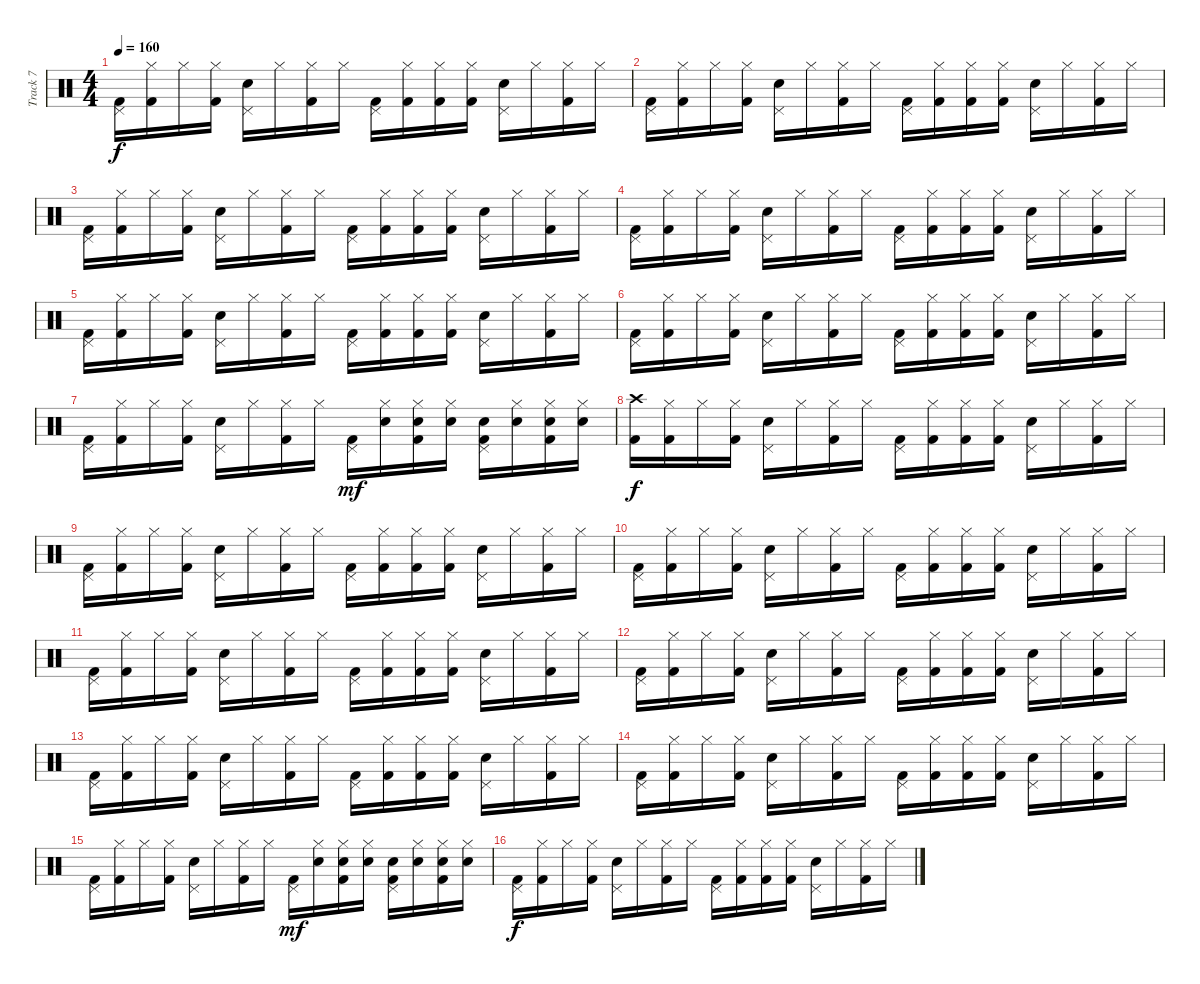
\track ("Track 7" "Track 7") {instrument percussion}
\staff {score}
\articulation defaults
\ts (4 4)
\tempo 160
\clef neutral
\ks c
("Pedal Hi-Hat (hit)" "Kick (hit) 2").16{dy f} ("Hi-Hat (closed)" "Kick (hit) 2").16 "Hi-Hat (closed)".16 ("Hi-Hat (closed)" "Kick (hit) 2").16 ("Pedal Hi-Hat (hit)" "Snare (hit) 2").16 "Hi-Hat (closed)".16 ("Hi-Hat (closed)" "Kick (hit) 2").16 "Hi-Hat (closed)".16 ("Pedal Hi-Hat (hit)" "Kick (hit) 2").16 ("Hi-Hat (closed)" "Kick (hit) 2").16 ("Hi-Hat (closed)" "Kick (hit) 2").16 ("Hi-Hat (closed)" "Kick (hit) 2").16 ("Pedal Hi-Hat (hit)" "Snare (hit) 2").16 "Hi-Hat (closed)".16 ("Hi-Hat (closed)" "Kick (hit) 2").16 "Hi-Hat (closed)".16 |
("Pedal Hi-Hat (hit)" "Kick (hit) 2").16 ("Hi-Hat (closed)" "Kick (hit) 2").16 "Hi-Hat (closed)".16 ("Hi-Hat (closed)" "Kick (hit) 2").16 ("Pedal Hi-Hat (hit)" "Snare (hit) 2").16 "Hi-Hat (closed)".16 ("Hi-Hat (closed)" "Kick (hit) 2").16 "Hi-Hat (closed)".16 ("Pedal Hi-Hat (hit)" "Kick (hit) 2").16 ("Hi-Hat (closed)" "Kick (hit) 2").16 ("Hi-Hat (closed)" "Kick (hit) 2").16 ("Hi-Hat (closed)" "Kick (hit) 2").16 ("Pedal Hi-Hat (hit)" "Snare (hit) 2").16 "Hi-Hat (closed)".16 ("Hi-Hat (closed)" "Kick (hit) 2").16 "Hi-Hat (closed)".16 |
("Pedal Hi-Hat (hit)" "Kick (hit) 2").16 ("Hi-Hat (closed)" "Kick (hit) 2").16 "Hi-Hat (closed)".16 ("Hi-Hat (closed)" "Kick (hit) 2").16 ("Pedal Hi-Hat (hit)" "Snare (hit) 2").16 "Hi-Hat (closed)".16 ("Hi-Hat (closed)" "Kick (hit) 2").16 "Hi-Hat (closed)".16 ("Pedal Hi-Hat (hit)" "Kick (hit) 2").16 ("Hi-Hat (closed)" "Kick (hit) 2").16 ("Hi-Hat (closed)" "Kick (hit) 2").16 ("Hi-Hat (closed)" "Kick (hit) 2").16 ("Pedal Hi-Hat (hit)" "Snare (hit) 2").16 "Hi-Hat (closed)".16 ("Hi-Hat (closed)" "Kick (hit) 2").16 "Hi-Hat (closed)".16 |
("Pedal Hi-Hat (hit)" "Kick (hit) 2").16 ("Hi-Hat (closed)" "Kick (hit) 2").16 "Hi-Hat (closed)".16 ("Hi-Hat (closed)" "Kick (hit) 2").16 ("Pedal Hi-Hat (hit)" "Snare (hit) 2").16 "Hi-Hat (closed)".16 ("Hi-Hat (closed)" "Kick (hit) 2").16 "Hi-Hat (closed)".16 ("Pedal Hi-Hat (hit)" "Kick (hit) 2").16 ("Hi-Hat (closed)" "Kick (hit) 2").16 ("Hi-Hat (closed)" "Kick (hit) 2").16 ("Hi-Hat (closed)" "Kick (hit) 2").16 ("Pedal Hi-Hat (hit)" "Snare (hit) 2").16 "Hi-Hat (closed)".16 ("Hi-Hat (closed)" "Kick (hit) 2").16 "Hi-Hat (closed)".16 |
("Pedal Hi-Hat (hit)" "Kick (hit) 2").16 ("Hi-Hat (closed)" "Kick (hit) 2").16 "Hi-Hat (closed)".16 ("Hi-Hat (closed)" "Kick (hit) 2").16 ("Pedal Hi-Hat (hit)" "Snare (hit) 2").16 "Hi-Hat (closed)".16 ("Hi-Hat (closed)" "Kick (hit) 2").16 "Hi-Hat (closed)".16 ("Pedal Hi-Hat (hit)" "Kick (hit) 2").16 ("Hi-Hat (closed)" "Kick (hit) 2").16 ("Hi-Hat (closed)" "Kick (hit) 2").16 ("Hi-Hat (closed)" "Kick (hit) 2").16 ("Pedal Hi-Hat (hit)" "Snare (hit) 2").16 "Hi-Hat (closed)".16 ("Hi-Hat (closed)" "Kick (hit) 2").16 "Hi-Hat (closed)".16 |
("Pedal Hi-Hat (hit)" "Kick (hit) 2").16 ("Hi-Hat (closed)" "Kick (hit) 2").16 "Hi-Hat (closed)".16 ("Hi-Hat (closed)" "Kick (hit) 2").16 ("Pedal Hi-Hat (hit)" "Snare (hit) 2").16 "Hi-Hat (closed)".16 ("Hi-Hat (closed)" "Kick (hit) 2").16 "Hi-Hat (closed)".16 ("Pedal Hi-Hat (hit)" "Kick (hit) 2").16 ("Hi-Hat (closed)" "Kick (hit) 2").16 ("Hi-Hat (closed)" "Kick (hit) 2").16 ("Hi-Hat (closed)" "Kick (hit) 2").16 ("Pedal Hi-Hat (hit)" "Snare (hit) 2").16 "Hi-Hat (closed)".16 ("Hi-Hat (closed)" "Kick (hit) 2").16 "Hi-Hat (closed)".16 |
("Pedal Hi-Hat (hit)" "Kick (hit) 2").16 ("Hi-Hat (closed)" "Kick (hit) 2").16 "Hi-Hat (closed)".16 ("Hi-Hat (closed)" "Kick (hit) 2").16 ("Pedal Hi-Hat (hit)" "Snare (hit) 2").16 "Hi-Hat (closed)".16 ("Hi-Hat (closed)" "Kick (hit) 2").16 "Hi-Hat (closed)".16 ("Pedal Hi-Hat (hit)" "Kick (hit) 2").16{dy mf} ("Hi-Hat (closed)" "Snare (hit) 2").16 ("Hi-Hat (closed)" "Snare (hit) 2" "Kick (hit) 2").16 ("Hi-Hat (closed)" "Snare (hit) 2").16 ("Pedal Hi-Hat (hit)" "Snare (hit) 2" "Kick (hit) 2").16 ("Hi-Hat (closed)" "Snare (hit) 2").16 ("Hi-Hat (closed)" "Snare (hit) 2" "Kick (hit) 2").16 ("Hi-Hat (closed)" "Snare (hit) 2").16 |
("Crash high (hit)" "Kick (hit) 2").16{dy f} ("Hi-Hat (closed)" "Kick (hit) 2").16 "Hi-Hat (closed)".16 ("Hi-Hat (closed)" "Kick (hit) 2").16 ("Pedal Hi-Hat (hit)" "Snare (hit) 2").16 "Hi-Hat (closed)".16 ("Hi-Hat (closed)" "Kick (hit) 2").16 "Hi-Hat (closed)".16 ("Pedal Hi-Hat (hit)" "Kick (hit) 2").16 ("Hi-Hat (closed)" "Kick (hit) 2").16 ("Hi-Hat (closed)" "Kick (hit) 2").16 ("Hi-Hat (closed)" "Kick (hit) 2").16 ("Pedal Hi-Hat (hit)" "Snare (hit) 2").16 "Hi-Hat (closed)".16 ("Hi-Hat (closed)" "Kick (hit) 2").16 "Hi-Hat (closed)".16 |
("Pedal Hi-Hat (hit)" "Kick (hit) 2").16 ("Hi-Hat (closed)" "Kick (hit) 2").16 "Hi-Hat (closed)".16 ("Hi-Hat (closed)" "Kick (hit) 2").16 ("Pedal Hi-Hat (hit)" "Snare (hit) 2").16 "Hi-Hat (closed)".16 ("Hi-Hat (closed)" "Kick (hit) 2").16 "Hi-Hat (closed)".16 ("Pedal Hi-Hat (hit)" "Kick (hit) 2").16 ("Hi-Hat (closed)" "Kick (hit) 2").16 ("Hi-Hat (closed)" "Kick (hit) 2").16 ("Hi-Hat (closed)" "Kick (hit) 2").16 ("Pedal Hi-Hat (hit)" "Snare (hit) 2").16 "Hi-Hat (closed)".16 ("Hi-Hat (closed)" "Kick (hit) 2").16 "Hi-Hat (closed)".16 |
("Pedal Hi-Hat (hit)" "Kick (hit) 2").16 ("Hi-Hat (closed)" "Kick (hit) 2").16 "Hi-Hat (closed)".16 ("Hi-Hat (closed)" "Kick (hit) 2").16 ("Pedal Hi-Hat (hit)" "Snare (hit) 2").16 "Hi-Hat (closed)".16 ("Hi-Hat (closed)" "Kick (hit) 2").16 "Hi-Hat (closed)".16 ("Pedal Hi-Hat (hit)" "Kick (hit) 2").16 ("Hi-Hat (closed)" "Kick (hit) 2").16 ("Hi-Hat (closed)" "Kick (hit) 2").16 ("Hi-Hat (closed)" "Kick (hit) 2").16 ("Pedal Hi-Hat (hit)" "Snare (hit) 2").16 "Hi-Hat (closed)".16 ("Hi-Hat (closed)" "Kick (hit) 2").16 "Hi-Hat (closed)".16 |
("Pedal Hi-Hat (hit)" "Kick (hit) 2").16 ("Hi-Hat (closed)" "Kick (hit) 2").16 "Hi-Hat (closed)".16 ("Hi-Hat (closed)" "Kick (hit) 2").16 ("Pedal Hi-Hat (hit)" "Snare (hit) 2").16 "Hi-Hat (closed)".16 ("Hi-Hat (closed)" "Kick (hit) 2").16 "Hi-Hat (closed)".16 ("Pedal Hi-Hat (hit)" "Kick (hit) 2").16 ("Hi-Hat (closed)" "Kick (hit) 2").16 ("Hi-Hat (closed)" "Kick (hit) 2").16 ("Hi-Hat (closed)" "Kick (hit) 2").16 ("Pedal Hi-Hat (hit)" "Snare (hit) 2").16 "Hi-Hat (closed)".16 ("Hi-Hat (closed)" "Kick (hit) 2").16 "Hi-Hat (closed)".16 |
("Pedal Hi-Hat (hit)" "Kick (hit) 2").16 ("Hi-Hat (closed)" "Kick (hit) 2").16 "Hi-Hat (closed)".16 ("Hi-Hat (closed)" "Kick (hit) 2").16 ("Pedal Hi-Hat (hit)" "Snare (hit) 2").16 "Hi-Hat (closed)".16 ("Hi-Hat (closed)" "Kick (hit) 2").16 "Hi-Hat (closed)".16 ("Pedal Hi-Hat (hit)" "Kick (hit) 2").16 ("Hi-Hat (closed)" "Kick (hit) 2").16 ("Hi-Hat (closed)" "Kick (hit) 2").16 ("Hi-Hat (closed)" "Kick (hit) 2").16 ("Pedal Hi-Hat (hit)" "Snare (hit) 2").16 "Hi-Hat (closed)".16 ("Hi-Hat (closed)" "Kick (hit) 2").16 "Hi-Hat (closed)".16 |
("Pedal Hi-Hat (hit)" "Kick (hit) 2").16 ("Hi-Hat (closed)" "Kick (hit) 2").16 "Hi-Hat (closed)".16 ("Hi-Hat (closed)" "Kick (hit) 2").16 ("Pedal Hi-Hat (hit)" "Snare (hit) 2").16 "Hi-Hat (closed)".16 ("Hi-Hat (closed)" "Kick (hit) 2").16 "Hi-Hat (closed)".16 ("Pedal Hi-Hat (hit)" "Kick (hit) 2").16 ("Hi-Hat (closed)" "Kick (hit) 2").16 ("Hi-Hat (closed)" "Kick (hit) 2").16 ("Hi-Hat (closed)" "Kick (hit) 2").16 ("Pedal Hi-Hat (hit)" "Snare (hit) 2").16 "Hi-Hat (closed)".16 ("Hi-Hat (closed)" "Kick (hit) 2").16 "Hi-Hat (closed)".16 |
("Pedal Hi-Hat (hit)" "Kick (hit) 2").16 ("Hi-Hat (closed)" "Kick (hit) 2").16 "Hi-Hat (closed)".16 ("Hi-Hat (closed)" "Kick (hit) 2").16 ("Pedal Hi-Hat (hit)" "Snare (hit) 2").16 "Hi-Hat (closed)".16 ("Hi-Hat (closed)" "Kick (hit) 2").16 "Hi-Hat (closed)".16 ("Pedal Hi-Hat (hit)" "Kick (hit) 2").16 ("Hi-Hat (closed)" "Kick (hit) 2").16 ("Hi-Hat (closed)" "Kick (hit) 2").16 ("Hi-Hat (closed)" "Kick (hit) 2").16 ("Pedal Hi-Hat (hit)" "Snare (hit) 2").16 "Hi-Hat (closed)".16 ("Hi-Hat (closed)" "Kick (hit) 2").16 "Hi-Hat (closed)".16 |
("Pedal Hi-Hat (hit)" "Kick (hit) 2").16 ("Hi-Hat (closed)" "Kick (hit) 2").16 "Hi-Hat (closed)".16 ("Hi-Hat (closed)" "Kick (hit) 2").16 ("Pedal Hi-Hat (hit)" "Snare (hit) 2").16 "Hi-Hat (closed)".16 ("Hi-Hat (closed)" "Kick (hit) 2").16 "Hi-Hat (closed)".16 ("Pedal Hi-Hat (hit)" "Kick (hit) 2").16{dy mf} ("Hi-Hat (closed)" "Snare (hit) 2").16 ("Hi-Hat (closed)" "Snare (hit) 2" "Kick (hit) 2").16 ("Hi-Hat (closed)" "Snare (hit) 2").16 ("Pedal Hi-Hat (hit)" "Snare (hit) 2" "Kick (hit) 2").16 ("Hi-Hat (closed)" "Snare (hit) 2").16 ("Hi-Hat (closed)" "Snare (hit) 2" "Kick (hit) 2").16 ("Hi-Hat (closed)" "Snare (hit) 2").16 |
("Pedal Hi-Hat (hit)" "Kick (hit) 2").16{dy f} ("Hi-Hat (closed)" "Kick (hit) 2").16 "Hi-Hat (closed)".16 ("Hi-Hat (closed)" "Kick (hit) 2").16 ("Pedal Hi-Hat (hit)" "Snare (hit) 2").16 "Hi-Hat (closed)".16 ("Hi-Hat (closed)" "Kick (hit) 2").16 "Hi-Hat (closed)".16 ("Pedal Hi-Hat (hit)" "Kick (hit) 2").16 ("Hi-Hat (closed)" "Kick (hit) 2").16 ("Hi-Hat (closed)" "Kick (hit) 2").16 ("Hi-Hat (closed)" "Kick (hit) 2").16 ("Pedal Hi-Hat (hit)" "Snare (hit) 2").16 "Hi-Hat (closed)".16 ("Hi-Hat (closed)" "Kick (hit) 2").16 "Hi-Hat (closed)".16
